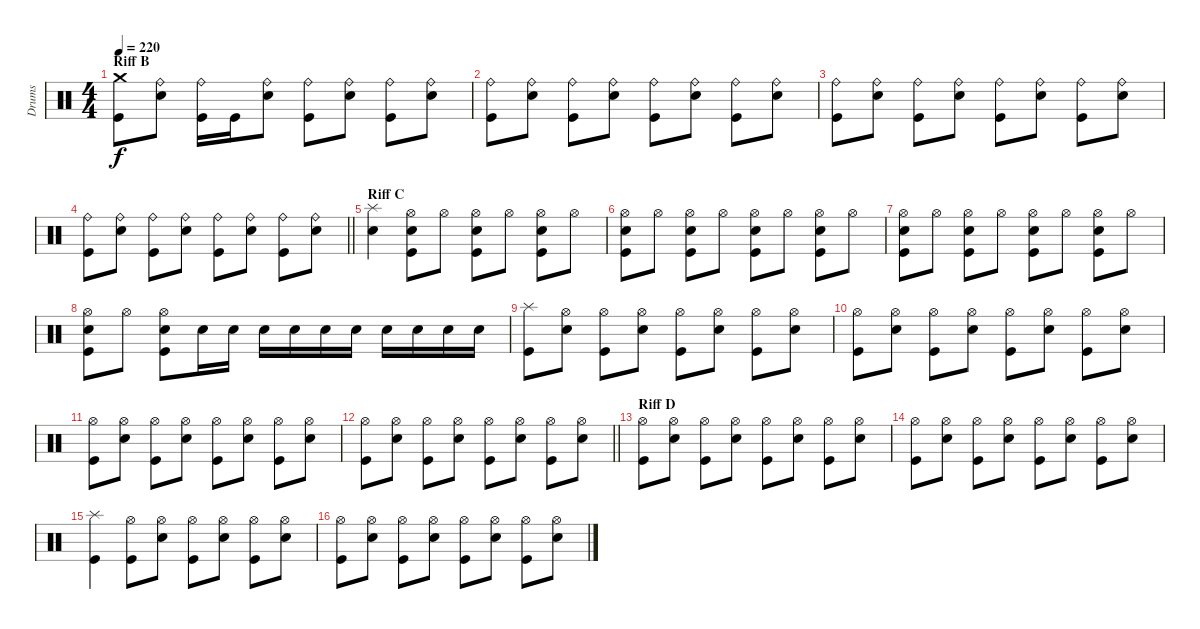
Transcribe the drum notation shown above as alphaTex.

\track ("Drums" "Drums") {instrument percussion}
\staff {score}
\articulation defaults
\ts (4 4)
\section ("" "Riff B")
\tempo 220
\clef neutral
\ks c
("Kick (hit)" "Crash medium (hit)").8{dy f} ("Electric Snare (hit)" "Ride (bell)").8 ("Kick (hit)" "Ride (bell)").16 "Kick (hit)".16 ("Electric Snare (hit)" "Ride (bell)").8 ("Kick (hit)" "Ride (bell)").8 ("Electric Snare (hit)" "Ride (bell)").8 ("Kick (hit)" "Ride (bell)").8 ("Electric Snare (hit)" "Ride (bell)").8 |
("Kick (hit)" "Ride (bell)").8 ("Electric Snare (hit)" "Ride (bell)").8 ("Kick (hit)" "Ride (bell)").8 ("Electric Snare (hit)" "Ride (bell)").8 ("Kick (hit)" "Ride (bell)").8 ("Electric Snare (hit)" "Ride (bell)").8 ("Kick (hit)" "Ride (bell)").8 ("Electric Snare (hit)" "Ride (bell)").8 |
("Kick (hit)" "Ride (bell)").8 ("Electric Snare (hit)" "Ride (bell)").8 ("Kick (hit)" "Ride (bell)").8 ("Electric Snare (hit)" "Ride (bell)").8 ("Kick (hit)" "Ride (bell)").8 ("Electric Snare (hit)" "Ride (bell)").8 ("Kick (hit)" "Ride (bell)").8 ("Electric Snare (hit)" "Ride (bell)").8 |
\barLineRight lightlight
("Kick (hit)" "Ride (bell)").8 ("Electric Snare (hit)" "Ride (bell)").8 ("Kick (hit)" "Ride (bell)").8 ("Electric Snare (hit)" "Ride (bell)").8 ("Kick (hit)" "Ride (bell)").8 ("Electric Snare (hit)" "Ride (bell)").8 ("Kick (hit)" "Ride (bell)").8 ("Electric Snare (hit)" "Ride (bell)").8 |
\section ("" "Riff C")
("Electric Snare (hit)" "Splash (hit)").4 ("Kick (hit)" "Electric Snare (hit)" "Hi-Hat (open)").8 "Hi-Hat (open)".8 ("Kick (hit)" "Electric Snare (hit)" "Hi-Hat (open)").8 "Hi-Hat (open)".8 ("Kick (hit)" "Electric Snare (hit)" "Hi-Hat (open)").8 "Hi-Hat (open)".8 |
("Kick (hit)" "Electric Snare (hit)" "Hi-Hat (open)").8 "Hi-Hat (open)".8 ("Kick (hit)" "Electric Snare (hit)" "Hi-Hat (open)").8 "Hi-Hat (open)".8 ("Kick (hit)" "Electric Snare (hit)" "Hi-Hat (open)").8 "Hi-Hat (open)".8 ("Kick (hit)" "Electric Snare (hit)" "Hi-Hat (open)").8 "Hi-Hat (open)".8 |
("Kick (hit)" "Electric Snare (hit)" "Hi-Hat (open)").8 "Hi-Hat (open)".8 ("Kick (hit)" "Electric Snare (hit)" "Hi-Hat (open)").8 "Hi-Hat (open)".8 ("Kick (hit)" "Electric Snare (hit)" "Hi-Hat (open)").8 "Hi-Hat (open)".8 ("Kick (hit)" "Electric Snare (hit)" "Hi-Hat (open)").8 "Hi-Hat (open)".8 |
("Kick (hit)" "Electric Snare (hit)" "Hi-Hat (open)").8 "Hi-Hat (open)".8 ("Kick (hit)" "Electric Snare (hit)" "Hi-Hat (open)").8 "Electric Snare (hit)".16 "Electric Snare (hit)".16 "Electric Snare (hit)".16 "Electric Snare (hit)".16 "Electric Snare (hit)".16 "Electric Snare (hit)".16 "Electric Snare (hit)".16 "Electric Snare (hit)".16 "Electric Snare (hit)".16 "Electric Snare (hit)".16 |
("Kick (hit)" "Splash (hit)").8 ("Electric Snare (hit)" "Hi-Hat (open)").8 ("Kick (hit)" "Hi-Hat (open)").8 ("Electric Snare (hit)" "Hi-Hat (open)").8 ("Kick (hit)" "Hi-Hat (open)").8 ("Electric Snare (hit)" "Hi-Hat (open)").8 ("Kick (hit)" "Hi-Hat (open)").8 ("Electric Snare (hit)" "Hi-Hat (open)").8 |
("Kick (hit)" "Hi-Hat (open)").8 ("Electric Snare (hit)" "Hi-Hat (open)").8 ("Kick (hit)" "Hi-Hat (open)").8 ("Electric Snare (hit)" "Hi-Hat (open)").8 ("Kick (hit)" "Hi-Hat (open)").8 ("Electric Snare (hit)" "Hi-Hat (open)").8 ("Kick (hit)" "Hi-Hat (open)").8 ("Electric Snare (hit)" "Hi-Hat (open)").8 |
("Kick (hit)" "Hi-Hat (open)").8 ("Electric Snare (hit)" "Hi-Hat (open)").8 ("Kick (hit)" "Hi-Hat (open)").8 ("Electric Snare (hit)" "Hi-Hat (open)").8 ("Kick (hit)" "Hi-Hat (open)").8 ("Electric Snare (hit)" "Hi-Hat (open)").8 ("Kick (hit)" "Hi-Hat (open)").8 ("Electric Snare (hit)" "Hi-Hat (open)").8 |
\barLineRight lightlight
("Kick (hit)" "Hi-Hat (open)").8 ("Electric Snare (hit)" "Hi-Hat (open)").8 ("Kick (hit)" "Hi-Hat (open)").8 ("Electric Snare (hit)" "Hi-Hat (open)").8 ("Kick (hit)" "Hi-Hat (open)").8 ("Electric Snare (hit)" "Hi-Hat (open)").8 ("Kick (hit)" "Hi-Hat (open)").8 ("Electric Snare (hit)" "Hi-Hat (open)").8 |
\section ("" "Riff D")
("Kick (hit)" "Hi-Hat (open)").8 ("Electric Snare (hit)" "Hi-Hat (open)").8 ("Kick (hit)" "Hi-Hat (open)").8 ("Electric Snare (hit)" "Hi-Hat (open)").8 ("Kick (hit)" "Hi-Hat (open)").8 ("Electric Snare (hit)" "Hi-Hat (open)").8 ("Kick (hit)" "Hi-Hat (open)").8 ("Electric Snare (hit)" "Hi-Hat (open)").8 |
("Kick (hit)" "Hi-Hat (open)").8 ("Electric Snare (hit)" "Hi-Hat (open)").8 ("Kick (hit)" "Hi-Hat (open)").8 ("Electric Snare (hit)" "Hi-Hat (open)").8 ("Kick (hit)" "Hi-Hat (open)").8 ("Electric Snare (hit)" "Hi-Hat (open)").8 ("Kick (hit)" "Hi-Hat (open)").8 ("Electric Snare (hit)" "Hi-Hat (open)").8 |
("Kick (hit)" "Splash (hit)").4 ("Kick (hit)" "Hi-Hat (open)").8 ("Electric Snare (hit)" "Hi-Hat (open)").8 ("Kick (hit)" "Hi-Hat (open)").8 ("Electric Snare (hit)" "Hi-Hat (open)").8 ("Kick (hit)" "Hi-Hat (open)").8 ("Electric Snare (hit)" "Hi-Hat (open)").8 |
("Kick (hit)" "Hi-Hat (open)").8 ("Electric Snare (hit)" "Hi-Hat (open)").8 ("Kick (hit)" "Hi-Hat (open)").8 ("Electric Snare (hit)" "Hi-Hat (open)").8 ("Kick (hit)" "Hi-Hat (open)").8 ("Electric Snare (hit)" "Hi-Hat (open)").8 ("Kick (hit)" "Hi-Hat (open)").8 ("Electric Snare (hit)" "Hi-Hat (open)").8
